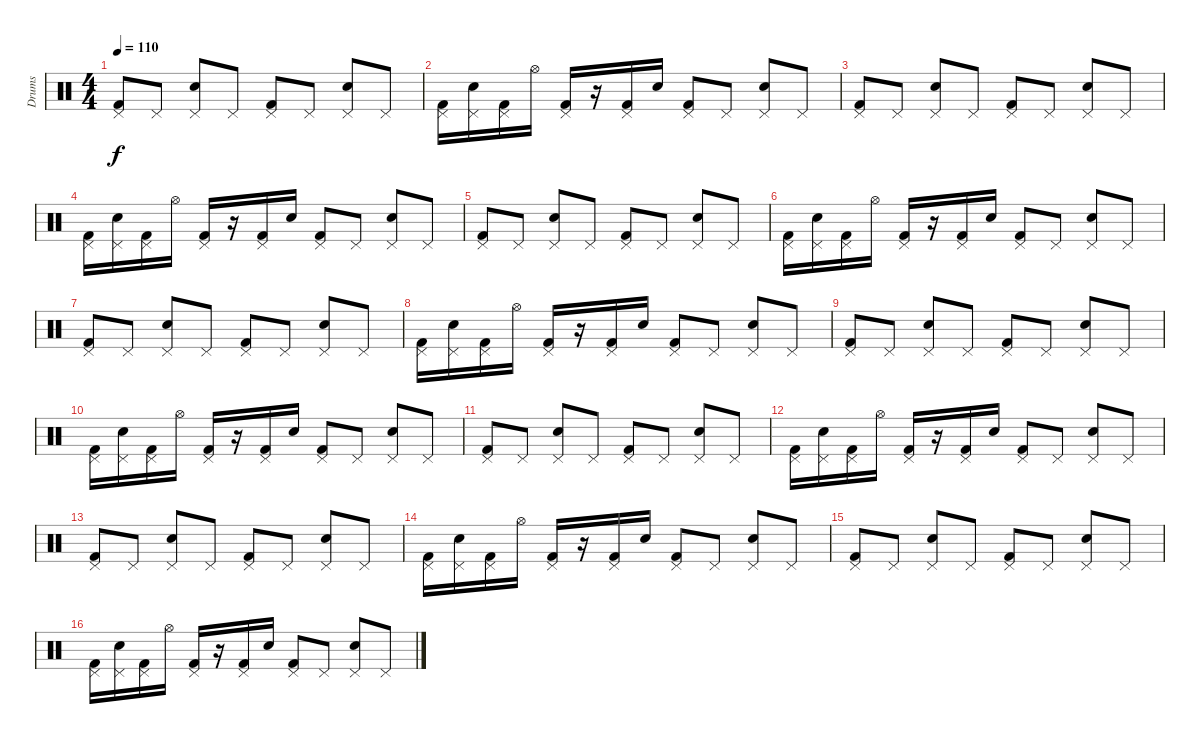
\track ("Drums" "Drums") {instrument percussion}
\staff {score}
\articulation defaults
\ts (4 4)
\tempo 110
\clef neutral
\ks c
("Pedal Hi-Hat (hit)" "Kick (hit) 2").8{dy f} "Pedal Hi-Hat (hit)".8 ("Pedal Hi-Hat (hit)" "Electric Snare (hit)").8 "Pedal Hi-Hat (hit)".8 ("Pedal Hi-Hat (hit)" "Kick (hit) 2").8 "Pedal Hi-Hat (hit)".8 ("Pedal Hi-Hat (hit)" "Electric Snare (hit)").8 "Pedal Hi-Hat (hit)".8 |
("Pedal Hi-Hat (hit)" "Kick (hit) 2").16 ("Pedal Hi-Hat (hit)" "Electric Snare (hit)").16 ("Pedal Hi-Hat (hit)" "Kick (hit) 2").16 "Hi-Hat (open)".16 ("Pedal Hi-Hat (hit)" "Kick (hit) 2").16 r.16 ("Pedal Hi-Hat (hit)" "Kick (hit) 2").16 "Electric Snare (hit)".16 ("Pedal Hi-Hat (hit)" "Kick (hit) 2").8 "Pedal Hi-Hat (hit)".8 ("Pedal Hi-Hat (hit)" "Electric Snare (hit)").8 "Pedal Hi-Hat (hit)".8 |
("Pedal Hi-Hat (hit)" "Kick (hit) 2").8 "Pedal Hi-Hat (hit)".8 ("Pedal Hi-Hat (hit)" "Electric Snare (hit)").8 "Pedal Hi-Hat (hit)".8 ("Pedal Hi-Hat (hit)" "Kick (hit) 2").8 "Pedal Hi-Hat (hit)".8 ("Pedal Hi-Hat (hit)" "Electric Snare (hit)").8 "Pedal Hi-Hat (hit)".8 |
("Pedal Hi-Hat (hit)" "Kick (hit) 2").16 ("Pedal Hi-Hat (hit)" "Electric Snare (hit)").16 ("Pedal Hi-Hat (hit)" "Kick (hit) 2").16 "Hi-Hat (open)".16 ("Pedal Hi-Hat (hit)" "Kick (hit) 2").16 r.16 ("Pedal Hi-Hat (hit)" "Kick (hit) 2").16 "Electric Snare (hit)".16 ("Pedal Hi-Hat (hit)" "Kick (hit) 2").8 "Pedal Hi-Hat (hit)".8 ("Pedal Hi-Hat (hit)" "Electric Snare (hit)").8 "Pedal Hi-Hat (hit)".8 |
("Pedal Hi-Hat (hit)" "Kick (hit) 2").8 "Pedal Hi-Hat (hit)".8 ("Pedal Hi-Hat (hit)" "Electric Snare (hit)").8 "Pedal Hi-Hat (hit)".8 ("Pedal Hi-Hat (hit)" "Kick (hit) 2").8 "Pedal Hi-Hat (hit)".8 ("Pedal Hi-Hat (hit)" "Electric Snare (hit)").8 "Pedal Hi-Hat (hit)".8 |
("Pedal Hi-Hat (hit)" "Kick (hit) 2").16 ("Pedal Hi-Hat (hit)" "Electric Snare (hit)").16 ("Pedal Hi-Hat (hit)" "Kick (hit) 2").16 "Hi-Hat (open)".16 ("Pedal Hi-Hat (hit)" "Kick (hit) 2").16 r.16 ("Pedal Hi-Hat (hit)" "Kick (hit) 2").16 "Electric Snare (hit)".16 ("Pedal Hi-Hat (hit)" "Kick (hit) 2").8 "Pedal Hi-Hat (hit)".8 ("Pedal Hi-Hat (hit)" "Electric Snare (hit)").8 "Pedal Hi-Hat (hit)".8 |
("Pedal Hi-Hat (hit)" "Kick (hit) 2").8 "Pedal Hi-Hat (hit)".8 ("Pedal Hi-Hat (hit)" "Electric Snare (hit)").8 "Pedal Hi-Hat (hit)".8 ("Pedal Hi-Hat (hit)" "Kick (hit) 2").8 "Pedal Hi-Hat (hit)".8 ("Pedal Hi-Hat (hit)" "Electric Snare (hit)").8 "Pedal Hi-Hat (hit)".8 |
("Pedal Hi-Hat (hit)" "Kick (hit) 2").16 ("Pedal Hi-Hat (hit)" "Electric Snare (hit)").16 ("Pedal Hi-Hat (hit)" "Kick (hit) 2").16 "Hi-Hat (open)".16 ("Pedal Hi-Hat (hit)" "Kick (hit) 2").16 r.16 ("Pedal Hi-Hat (hit)" "Kick (hit) 2").16 "Electric Snare (hit)".16 ("Pedal Hi-Hat (hit)" "Kick (hit) 2").8 "Pedal Hi-Hat (hit)".8 ("Pedal Hi-Hat (hit)" "Electric Snare (hit)").8 "Pedal Hi-Hat (hit)".8 |
("Pedal Hi-Hat (hit)" "Kick (hit) 2").8 "Pedal Hi-Hat (hit)".8 ("Pedal Hi-Hat (hit)" "Electric Snare (hit)").8 "Pedal Hi-Hat (hit)".8 ("Pedal Hi-Hat (hit)" "Kick (hit) 2").8 "Pedal Hi-Hat (hit)".8 ("Pedal Hi-Hat (hit)" "Electric Snare (hit)").8 "Pedal Hi-Hat (hit)".8 |
("Pedal Hi-Hat (hit)" "Kick (hit) 2").16 ("Pedal Hi-Hat (hit)" "Electric Snare (hit)").16 ("Pedal Hi-Hat (hit)" "Kick (hit) 2").16 "Hi-Hat (open)".16 ("Pedal Hi-Hat (hit)" "Kick (hit) 2").16 r.16 ("Pedal Hi-Hat (hit)" "Kick (hit) 2").16 "Electric Snare (hit)".16 ("Pedal Hi-Hat (hit)" "Kick (hit) 2").8 "Pedal Hi-Hat (hit)".8 ("Pedal Hi-Hat (hit)" "Electric Snare (hit)").8 "Pedal Hi-Hat (hit)".8 |
("Pedal Hi-Hat (hit)" "Kick (hit) 2").8 "Pedal Hi-Hat (hit)".8 ("Pedal Hi-Hat (hit)" "Electric Snare (hit)").8 "Pedal Hi-Hat (hit)".8 ("Pedal Hi-Hat (hit)" "Kick (hit) 2").8 "Pedal Hi-Hat (hit)".8 ("Pedal Hi-Hat (hit)" "Electric Snare (hit)").8 "Pedal Hi-Hat (hit)".8 |
("Pedal Hi-Hat (hit)" "Kick (hit) 2").16 ("Pedal Hi-Hat (hit)" "Electric Snare (hit)").16 ("Pedal Hi-Hat (hit)" "Kick (hit) 2").16 "Hi-Hat (open)".16 ("Pedal Hi-Hat (hit)" "Kick (hit) 2").16 r.16 ("Pedal Hi-Hat (hit)" "Kick (hit) 2").16 "Electric Snare (hit)".16 ("Pedal Hi-Hat (hit)" "Kick (hit) 2").8 "Pedal Hi-Hat (hit)".8 ("Pedal Hi-Hat (hit)" "Electric Snare (hit)").8 "Pedal Hi-Hat (hit)".8 |
("Pedal Hi-Hat (hit)" "Kick (hit) 2").8 "Pedal Hi-Hat (hit)".8 ("Pedal Hi-Hat (hit)" "Electric Snare (hit)").8 "Pedal Hi-Hat (hit)".8 ("Pedal Hi-Hat (hit)" "Kick (hit) 2").8 "Pedal Hi-Hat (hit)".8 ("Pedal Hi-Hat (hit)" "Electric Snare (hit)").8 "Pedal Hi-Hat (hit)".8 |
("Pedal Hi-Hat (hit)" "Kick (hit) 2").16 ("Pedal Hi-Hat (hit)" "Electric Snare (hit)").16 ("Pedal Hi-Hat (hit)" "Kick (hit) 2").16 "Hi-Hat (open)".16 ("Pedal Hi-Hat (hit)" "Kick (hit) 2").16 r.16 ("Pedal Hi-Hat (hit)" "Kick (hit) 2").16 "Electric Snare (hit)".16 ("Pedal Hi-Hat (hit)" "Kick (hit) 2").8 "Pedal Hi-Hat (hit)".8 ("Pedal Hi-Hat (hit)" "Electric Snare (hit)").8 "Pedal Hi-Hat (hit)".8 |
("Pedal Hi-Hat (hit)" "Kick (hit) 2").8 "Pedal Hi-Hat (hit)".8 ("Pedal Hi-Hat (hit)" "Electric Snare (hit)").8 "Pedal Hi-Hat (hit)".8 ("Pedal Hi-Hat (hit)" "Kick (hit) 2").8 "Pedal Hi-Hat (hit)".8 ("Pedal Hi-Hat (hit)" "Electric Snare (hit)").8 "Pedal Hi-Hat (hit)".8 |
("Pedal Hi-Hat (hit)" "Kick (hit) 2").16 ("Pedal Hi-Hat (hit)" "Electric Snare (hit)").16 ("Pedal Hi-Hat (hit)" "Kick (hit) 2").16 "Hi-Hat (open)".16 ("Pedal Hi-Hat (hit)" "Kick (hit) 2").16 r.16 ("Pedal Hi-Hat (hit)" "Kick (hit) 2").16 "Electric Snare (hit)".16 ("Pedal Hi-Hat (hit)" "Kick (hit) 2").8 "Pedal Hi-Hat (hit)".8 ("Pedal Hi-Hat (hit)" "Electric Snare (hit)").8 "Pedal Hi-Hat (hit)".8
